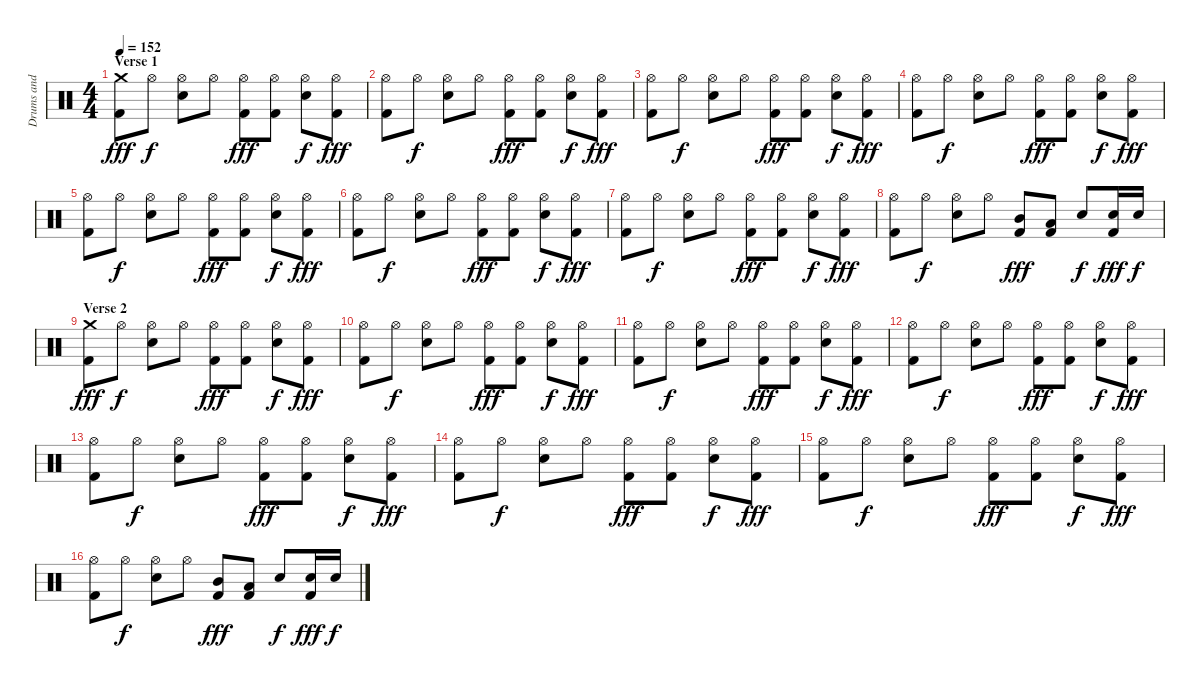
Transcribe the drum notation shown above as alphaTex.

\track ("Drums and Percussion" "Drums and ") {instrument percussion}
\staff {score}
\articulation defaults
\ts (4 4)
\section ("" "Verse 1")
\tempo 152
\clef neutral
\ks c
("Crash medium (hit)" "Kick (hit) 2").8{dy fff} "Hi-Hat (open)".8{dy f} ("Hi-Hat (open)" "Snare (hit) 2").8 "Hi-Hat (open)".8 ("Hi-Hat (open)" "Kick (hit) 2").8{dy fff} ("Hi-Hat (open)" "Kick (hit) 2").8 ("Hi-Hat (open)" "Snare (hit) 2").8{dy f} ("Hi-Hat (open)" "Kick (hit) 2").8{dy fff} |
("Hi-Hat (open)" "Kick (hit) 2").8 "Hi-Hat (open)".8{dy f} ("Hi-Hat (open)" "Snare (hit) 2").8 "Hi-Hat (open)".8 ("Hi-Hat (open)" "Kick (hit) 2").8{dy fff} ("Hi-Hat (open)" "Kick (hit) 2").8 ("Hi-Hat (open)" "Snare (hit) 2").8{dy f} ("Hi-Hat (open)" "Kick (hit) 2").8{dy fff} |
("Hi-Hat (open)" "Kick (hit) 2").8 "Hi-Hat (open)".8{dy f} ("Hi-Hat (open)" "Snare (hit) 2").8 "Hi-Hat (open)".8 ("Hi-Hat (open)" "Kick (hit) 2").8{dy fff} ("Hi-Hat (open)" "Kick (hit) 2").8 ("Hi-Hat (open)" "Snare (hit) 2").8{dy f} ("Hi-Hat (open)" "Kick (hit) 2").8{dy fff} |
("Hi-Hat (open)" "Kick (hit) 2").8 "Hi-Hat (open)".8{dy f} ("Hi-Hat (open)" "Snare (hit) 2").8 "Hi-Hat (open)".8 ("Hi-Hat (open)" "Kick (hit) 2").8{dy fff} ("Hi-Hat (open)" "Kick (hit) 2").8 ("Hi-Hat (open)" "Snare (hit) 2").8{dy f} ("Hi-Hat (open)" "Kick (hit) 2").8{dy fff} |
("Hi-Hat (open)" "Kick (hit) 2").8 "Hi-Hat (open)".8{dy f} ("Hi-Hat (open)" "Snare (hit) 2").8 "Hi-Hat (open)".8 ("Hi-Hat (open)" "Kick (hit) 2").8{dy fff} ("Hi-Hat (open)" "Kick (hit) 2").8 ("Hi-Hat (open)" "Snare (hit) 2").8{dy f} ("Hi-Hat (open)" "Kick (hit) 2").8{dy fff} |
("Hi-Hat (open)" "Kick (hit) 2").8 "Hi-Hat (open)".8{dy f} ("Hi-Hat (open)" "Snare (hit) 2").8 "Hi-Hat (open)".8 ("Hi-Hat (open)" "Kick (hit) 2").8{dy fff} ("Hi-Hat (open)" "Kick (hit) 2").8 ("Hi-Hat (open)" "Snare (hit) 2").8{dy f} ("Hi-Hat (open)" "Kick (hit) 2").8{dy fff} |
("Hi-Hat (open)" "Kick (hit) 2").8 "Hi-Hat (open)".8{dy f} ("Hi-Hat (open)" "Snare (hit) 2").8 "Hi-Hat (open)".8 ("Hi-Hat (open)" "Kick (hit) 2").8{dy fff} ("Hi-Hat (open)" "Kick (hit) 2").8 ("Hi-Hat (open)" "Snare (hit) 2").8{dy f} ("Hi-Hat (open)" "Kick (hit) 2").8{dy fff} |
("Hi-Hat (open)" "Kick (hit) 2").8 "Hi-Hat (open)".8{dy f} ("Hi-Hat (open)" "Snare (hit) 2").8 "Hi-Hat (open)".8 ("Mid Tom (hit)" "Kick (hit) 2").8{dy fff} ("Low Tom (hit)" "Kick (hit) 2").8 "Snare (hit) 2".8{dy f} ("Snare (hit) 2" "Kick (hit) 2").16{dy fff} "Snare (hit) 2".16{dy f} |
\section ("" "Verse 2")
("Crash medium (hit)" "Kick (hit) 2").8{dy fff} "Hi-Hat (open)".8{dy f} ("Hi-Hat (open)" "Snare (hit) 2").8 "Hi-Hat (open)".8 ("Hi-Hat (open)" "Kick (hit) 2").8{dy fff} ("Hi-Hat (open)" "Kick (hit) 2").8 ("Hi-Hat (open)" "Snare (hit) 2").8{dy f} ("Hi-Hat (open)" "Kick (hit) 2").8{dy fff} |
("Hi-Hat (open)" "Kick (hit) 2").8 "Hi-Hat (open)".8{dy f} ("Hi-Hat (open)" "Snare (hit) 2").8 "Hi-Hat (open)".8 ("Hi-Hat (open)" "Kick (hit) 2").8{dy fff} ("Hi-Hat (open)" "Kick (hit) 2").8 ("Hi-Hat (open)" "Snare (hit) 2").8{dy f} ("Hi-Hat (open)" "Kick (hit) 2").8{dy fff} |
("Hi-Hat (open)" "Kick (hit) 2").8 "Hi-Hat (open)".8{dy f} ("Hi-Hat (open)" "Snare (hit) 2").8 "Hi-Hat (open)".8 ("Hi-Hat (open)" "Kick (hit) 2").8{dy fff} ("Hi-Hat (open)" "Kick (hit) 2").8 ("Hi-Hat (open)" "Snare (hit) 2").8{dy f} ("Hi-Hat (open)" "Kick (hit) 2").8{dy fff} |
("Hi-Hat (open)" "Kick (hit) 2").8 "Hi-Hat (open)".8{dy f} ("Hi-Hat (open)" "Snare (hit) 2").8 "Hi-Hat (open)".8 ("Hi-Hat (open)" "Kick (hit) 2").8{dy fff} ("Hi-Hat (open)" "Kick (hit) 2").8 ("Hi-Hat (open)" "Snare (hit) 2").8{dy f} ("Hi-Hat (open)" "Kick (hit) 2").8{dy fff} |
("Hi-Hat (open)" "Kick (hit) 2").8 "Hi-Hat (open)".8{dy f} ("Hi-Hat (open)" "Snare (hit) 2").8 "Hi-Hat (open)".8 ("Hi-Hat (open)" "Kick (hit) 2").8{dy fff} ("Hi-Hat (open)" "Kick (hit) 2").8 ("Hi-Hat (open)" "Snare (hit) 2").8{dy f} ("Hi-Hat (open)" "Kick (hit) 2").8{dy fff} |
("Hi-Hat (open)" "Kick (hit) 2").8 "Hi-Hat (open)".8{dy f} ("Hi-Hat (open)" "Snare (hit) 2").8 "Hi-Hat (open)".8 ("Hi-Hat (open)" "Kick (hit) 2").8{dy fff} ("Hi-Hat (open)" "Kick (hit) 2").8 ("Hi-Hat (open)" "Snare (hit) 2").8{dy f} ("Hi-Hat (open)" "Kick (hit) 2").8{dy fff} |
("Hi-Hat (open)" "Kick (hit) 2").8 "Hi-Hat (open)".8{dy f} ("Hi-Hat (open)" "Snare (hit) 2").8 "Hi-Hat (open)".8 ("Hi-Hat (open)" "Kick (hit) 2").8{dy fff} ("Hi-Hat (open)" "Kick (hit) 2").8 ("Hi-Hat (open)" "Snare (hit) 2").8{dy f} ("Hi-Hat (open)" "Kick (hit) 2").8{dy fff} |
("Hi-Hat (open)" "Kick (hit) 2").8 "Hi-Hat (open)".8{dy f} ("Hi-Hat (open)" "Snare (hit) 2").8 "Hi-Hat (open)".8 ("Mid Tom (hit)" "Kick (hit) 2").8{dy fff} ("Low Tom (hit)" "Kick (hit) 2").8 "Snare (hit) 2".8{dy f} ("Snare (hit) 2" "Kick (hit) 2").16{dy fff} "Snare (hit) 2".16{dy f}
